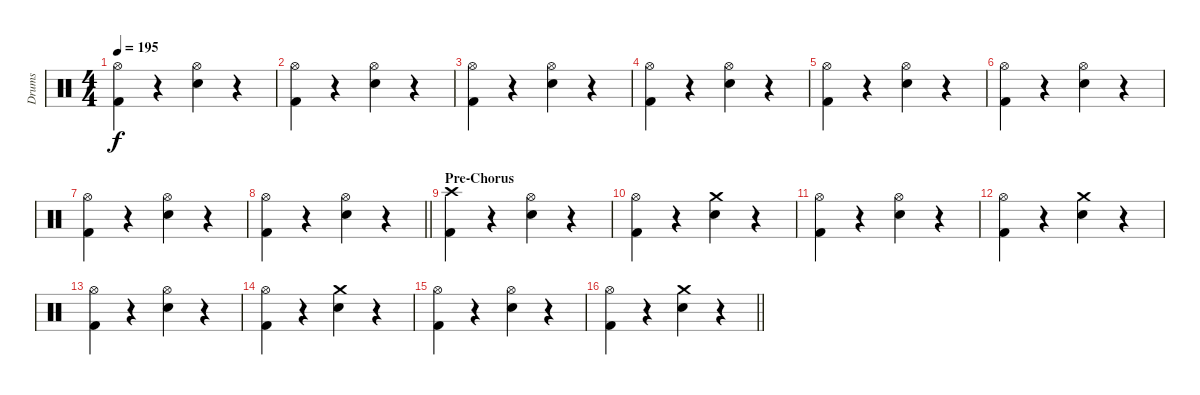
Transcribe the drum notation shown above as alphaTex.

\track ("Drums" "Drums") {instrument percussion}
\staff {score}
\articulation defaults
\ts (4 4)
\tempo 195
\clef neutral
\ks c
("Hi-Hat (open)" "Kick (hit) 2").4{dy f} r.4 ("Hi-Hat (open)" "Electric Snare (hit)").4 r.4 |
("Hi-Hat (open)" "Kick (hit) 2").4 r.4 ("Hi-Hat (open)" "Electric Snare (hit)").4 r.4 |
("Hi-Hat (open)" "Kick (hit) 2").4 r.4 ("Hi-Hat (open)" "Electric Snare (hit)").4 r.4 |
("Hi-Hat (open)" "Kick (hit) 2").4 r.4 ("Hi-Hat (open)" "Electric Snare (hit)").4 r.4 |
("Hi-Hat (open)" "Kick (hit) 2").4 r.4 ("Hi-Hat (open)" "Electric Snare (hit)").4 r.4 |
("Hi-Hat (open)" "Kick (hit) 2").4 r.4 ("Hi-Hat (open)" "Electric Snare (hit)").4 r.4 |
("Hi-Hat (open)" "Kick (hit) 2").4 r.4 ("Hi-Hat (open)" "Electric Snare (hit)").4 r.4 |
\barLineRight lightlight
("Hi-Hat (open)" "Kick (hit) 2").4 r.4 ("Hi-Hat (open)" "Electric Snare (hit)").4 r.4 |
\section ("" "Pre-Chorus")
("Crash high (hit)" "Kick (hit) 2").4 r.4 ("Hi-Hat (open)" "Electric Snare (hit)").4 r.4 |
("Hi-Hat (open)" "Kick (hit) 2").4 r.4 ("Crash medium (hit)" "Electric Snare (hit)").4 r.4 |
("Hi-Hat (open)" "Kick (hit) 2").4 r.4 ("Hi-Hat (open)" "Electric Snare (hit)").4 r.4 |
("Hi-Hat (open)" "Kick (hit) 2").4 r.4 ("Crash medium (hit)" "Electric Snare (hit)").4 r.4 |
("Hi-Hat (open)" "Kick (hit) 2").4 r.4 ("Hi-Hat (open)" "Electric Snare (hit)").4 r.4 |
("Hi-Hat (open)" "Kick (hit) 2").4 r.4 ("Crash medium (hit)" "Electric Snare (hit)").4 r.4 |
("Hi-Hat (open)" "Kick (hit) 2").4 r.4 ("Hi-Hat (open)" "Electric Snare (hit)").4 r.4 |
\barLineRight lightlight
("Hi-Hat (open)" "Kick (hit) 2").4 r.4 ("Crash medium (hit)" "Electric Snare (hit)").4 r.4
